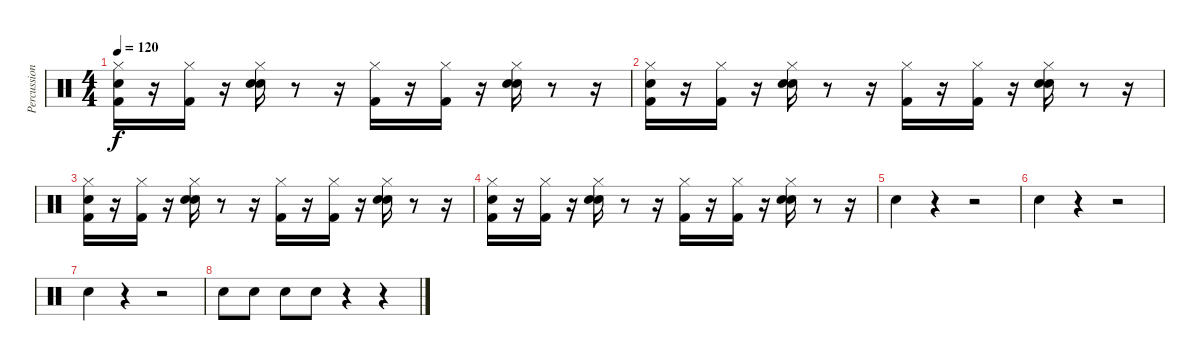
\track ("Percussions" "Percussion") {instrument percussion}
\staff {score}
\articulation defaults
\ts (4 4)
\tempo 120
\clef neutral
\ks c
("Snare (hit)" "Kick (hit) 2" "Hi-Hat (closed)").16{dy f} r.16 ("Kick (hit) 2" "Hi-Hat (closed)").16 r.16 ("Hand Clap (hit)" "Hi-Hat (closed)" "Snare (hit) 2").16 r.8 r.16 ("Hi-Hat (closed)" "Kick (hit) 2").16 r.16 ("Hi-Hat (closed)" "Kick (hit) 2").16 r.16 ("Snare (hit) 2" "Hand Clap (hit)" "Hi-Hat (closed)").16 r.8 r.16 |
("Snare (hit)" "Kick (hit) 2" "Hi-Hat (closed)").16 r.16 ("Kick (hit) 2" "Hi-Hat (closed)").16 r.16 ("Hand Clap (hit)" "Hi-Hat (closed)" "Snare (hit) 2").16 r.8 r.16 ("Hi-Hat (closed)" "Kick (hit) 2").16 r.16 ("Hi-Hat (closed)" "Kick (hit) 2").16 r.16 ("Snare (hit) 2" "Hand Clap (hit)" "Hi-Hat (closed)").16 r.8 r.16 |
("Snare (hit)" "Kick (hit) 2" "Hi-Hat (closed)").16 r.16 ("Kick (hit) 2" "Hi-Hat (closed)").16 r.16 ("Hand Clap (hit)" "Hi-Hat (closed)" "Snare (hit) 2").16 r.8 r.16 ("Hi-Hat (closed)" "Kick (hit) 2").16 r.16 ("Hi-Hat (closed)" "Kick (hit) 2").16 r.16 ("Snare (hit) 2" "Hand Clap (hit)" "Hi-Hat (closed)").16 r.8 r.16 |
("Snare (hit)" "Kick (hit) 2" "Hi-Hat (closed)").16 r.16 ("Kick (hit) 2" "Hi-Hat (closed)").16 r.16 ("Hand Clap (hit)" "Hi-Hat (closed)" "Snare (hit) 2").16 r.8 r.16 ("Hi-Hat (closed)" "Kick (hit) 2").16 r.16 ("Hi-Hat (closed)" "Kick (hit) 2").16 r.16 ("Snare (hit) 2" "Hand Clap (hit)" "Hi-Hat (closed)").16 r.8 r.16 |
"Snare (hit) 2".4 r.4 r.2 |
"Snare (hit) 2".4 r.4 r.2 |
"Snare (hit) 2".4 r.4 r.2 |
"Snare (hit) 2".8 "Snare (hit) 2".8 "Snare (hit) 2".8 "Snare (hit) 2".8 r.4 r.4
